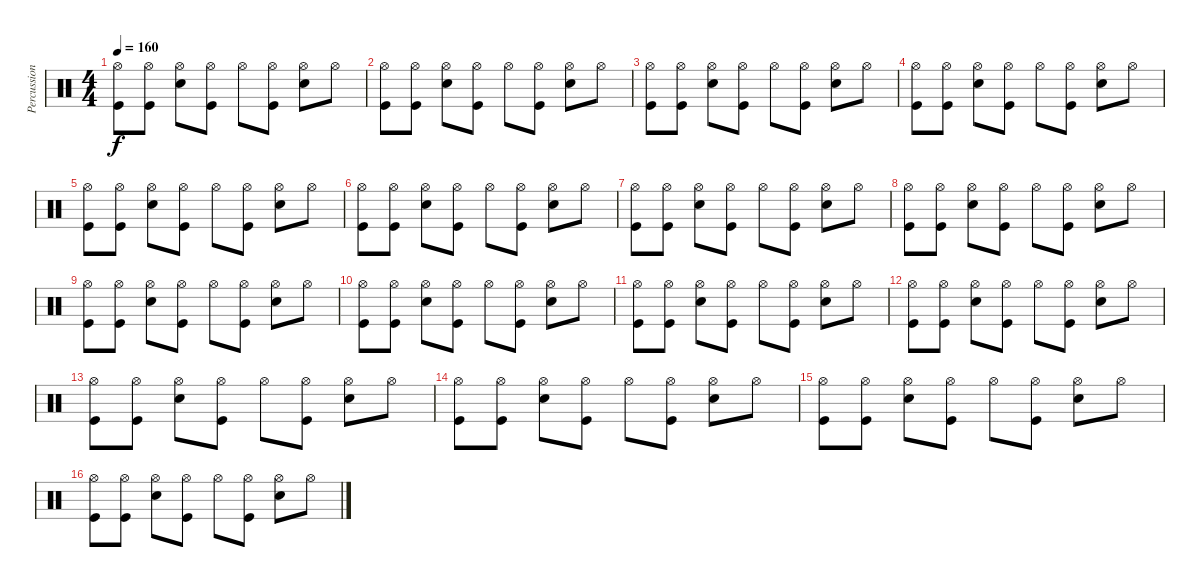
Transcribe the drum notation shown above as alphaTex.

\track ("Percussions" "Percussion") {instrument percussion}
\staff {score}
\articulation defaults
\ts (4 4)
\tempo 160
\clef neutral
\ks c
("Hi-Hat (open)" "Kick (hit)").8{dy f} ("Hi-Hat (open)" "Kick (hit)").8 ("Hi-Hat (open)" "Snare (hit) 2").8 ("Hi-Hat (open)" "Kick (hit)").8 "Hi-Hat (open)".8 ("Hi-Hat (open)" "Kick (hit)").8 ("Hi-Hat (open)" "Snare (hit) 2").8 "Hi-Hat (open)".8 |
("Hi-Hat (open)" "Kick (hit)").8 ("Hi-Hat (open)" "Kick (hit)").8 ("Hi-Hat (open)" "Snare (hit) 2").8 ("Hi-Hat (open)" "Kick (hit)").8 "Hi-Hat (open)".8 ("Hi-Hat (open)" "Kick (hit)").8 ("Hi-Hat (open)" "Snare (hit) 2").8 "Hi-Hat (open)".8 |
("Hi-Hat (open)" "Kick (hit)").8 ("Hi-Hat (open)" "Kick (hit)").8 ("Hi-Hat (open)" "Snare (hit) 2").8 ("Hi-Hat (open)" "Kick (hit)").8 "Hi-Hat (open)".8 ("Hi-Hat (open)" "Kick (hit)").8 ("Hi-Hat (open)" "Snare (hit) 2").8 "Hi-Hat (open)".8 |
("Hi-Hat (open)" "Kick (hit)").8 ("Hi-Hat (open)" "Kick (hit)").8 ("Hi-Hat (open)" "Snare (hit) 2").8 ("Hi-Hat (open)" "Kick (hit)").8 "Hi-Hat (open)".8 ("Hi-Hat (open)" "Kick (hit)").8 ("Hi-Hat (open)" "Snare (hit) 2").8 "Hi-Hat (open)".8 |
("Hi-Hat (open)" "Kick (hit)").8 ("Hi-Hat (open)" "Kick (hit)").8 ("Hi-Hat (open)" "Snare (hit) 2").8 ("Hi-Hat (open)" "Kick (hit)").8 "Hi-Hat (open)".8 ("Hi-Hat (open)" "Kick (hit)").8 ("Hi-Hat (open)" "Snare (hit) 2").8 "Hi-Hat (open)".8 |
("Hi-Hat (open)" "Kick (hit)").8 ("Hi-Hat (open)" "Kick (hit)").8 ("Hi-Hat (open)" "Snare (hit) 2").8 ("Hi-Hat (open)" "Kick (hit)").8 "Hi-Hat (open)".8 ("Hi-Hat (open)" "Kick (hit)").8 ("Hi-Hat (open)" "Snare (hit) 2").8 "Hi-Hat (open)".8 |
("Hi-Hat (open)" "Kick (hit)").8 ("Hi-Hat (open)" "Kick (hit)").8 ("Hi-Hat (open)" "Snare (hit) 2").8 ("Hi-Hat (open)" "Kick (hit)").8 "Hi-Hat (open)".8 ("Hi-Hat (open)" "Kick (hit)").8 ("Hi-Hat (open)" "Snare (hit) 2").8 "Hi-Hat (open)".8 |
("Hi-Hat (open)" "Kick (hit)").8 ("Hi-Hat (open)" "Kick (hit)").8 ("Hi-Hat (open)" "Snare (hit) 2").8 ("Hi-Hat (open)" "Kick (hit)").8 "Hi-Hat (open)".8 ("Hi-Hat (open)" "Kick (hit)").8 ("Hi-Hat (open)" "Snare (hit) 2").8 "Hi-Hat (open)".8 |
("Hi-Hat (open)" "Kick (hit)").8 ("Hi-Hat (open)" "Kick (hit)").8 ("Hi-Hat (open)" "Snare (hit) 2").8 ("Hi-Hat (open)" "Kick (hit)").8 "Hi-Hat (open)".8 ("Hi-Hat (open)" "Kick (hit)").8 ("Hi-Hat (open)" "Snare (hit) 2").8 "Hi-Hat (open)".8 |
("Hi-Hat (open)" "Kick (hit)").8 ("Hi-Hat (open)" "Kick (hit)").8 ("Hi-Hat (open)" "Snare (hit) 2").8 ("Hi-Hat (open)" "Kick (hit)").8 "Hi-Hat (open)".8 ("Hi-Hat (open)" "Kick (hit)").8 ("Hi-Hat (open)" "Snare (hit) 2").8 "Hi-Hat (open)".8 |
("Hi-Hat (open)" "Kick (hit)").8 ("Hi-Hat (open)" "Kick (hit)").8 ("Hi-Hat (open)" "Snare (hit) 2").8 ("Hi-Hat (open)" "Kick (hit)").8 "Hi-Hat (open)".8 ("Hi-Hat (open)" "Kick (hit)").8 ("Hi-Hat (open)" "Snare (hit) 2").8 "Hi-Hat (open)".8 |
("Hi-Hat (open)" "Kick (hit)").8 ("Hi-Hat (open)" "Kick (hit)").8 ("Hi-Hat (open)" "Snare (hit) 2").8 ("Hi-Hat (open)" "Kick (hit)").8 "Hi-Hat (open)".8 ("Hi-Hat (open)" "Kick (hit)").8 ("Hi-Hat (open)" "Snare (hit) 2").8 "Hi-Hat (open)".8 |
("Hi-Hat (open)" "Kick (hit)").8 ("Hi-Hat (open)" "Kick (hit)").8 ("Hi-Hat (open)" "Snare (hit) 2").8 ("Hi-Hat (open)" "Kick (hit)").8 "Hi-Hat (open)".8 ("Hi-Hat (open)" "Kick (hit)").8 ("Hi-Hat (open)" "Snare (hit) 2").8 "Hi-Hat (open)".8 |
("Hi-Hat (open)" "Kick (hit)").8 ("Hi-Hat (open)" "Kick (hit)").8 ("Hi-Hat (open)" "Snare (hit) 2").8 ("Hi-Hat (open)" "Kick (hit)").8 "Hi-Hat (open)".8 ("Hi-Hat (open)" "Kick (hit)").8 ("Hi-Hat (open)" "Snare (hit) 2").8 "Hi-Hat (open)".8 |
("Hi-Hat (open)" "Kick (hit)").8 ("Hi-Hat (open)" "Kick (hit)").8 ("Hi-Hat (open)" "Snare (hit) 2").8 ("Hi-Hat (open)" "Kick (hit)").8 "Hi-Hat (open)".8 ("Hi-Hat (open)" "Kick (hit)").8 ("Hi-Hat (open)" "Snare (hit) 2").8 "Hi-Hat (open)".8 |
("Hi-Hat (open)" "Kick (hit)").8 ("Hi-Hat (open)" "Kick (hit)").8 ("Hi-Hat (open)" "Snare (hit) 2").8 ("Hi-Hat (open)" "Kick (hit)").8 "Hi-Hat (open)".8 ("Hi-Hat (open)" "Kick (hit)").8 ("Hi-Hat (open)" "Snare (hit) 2").8 "Hi-Hat (open)".8
